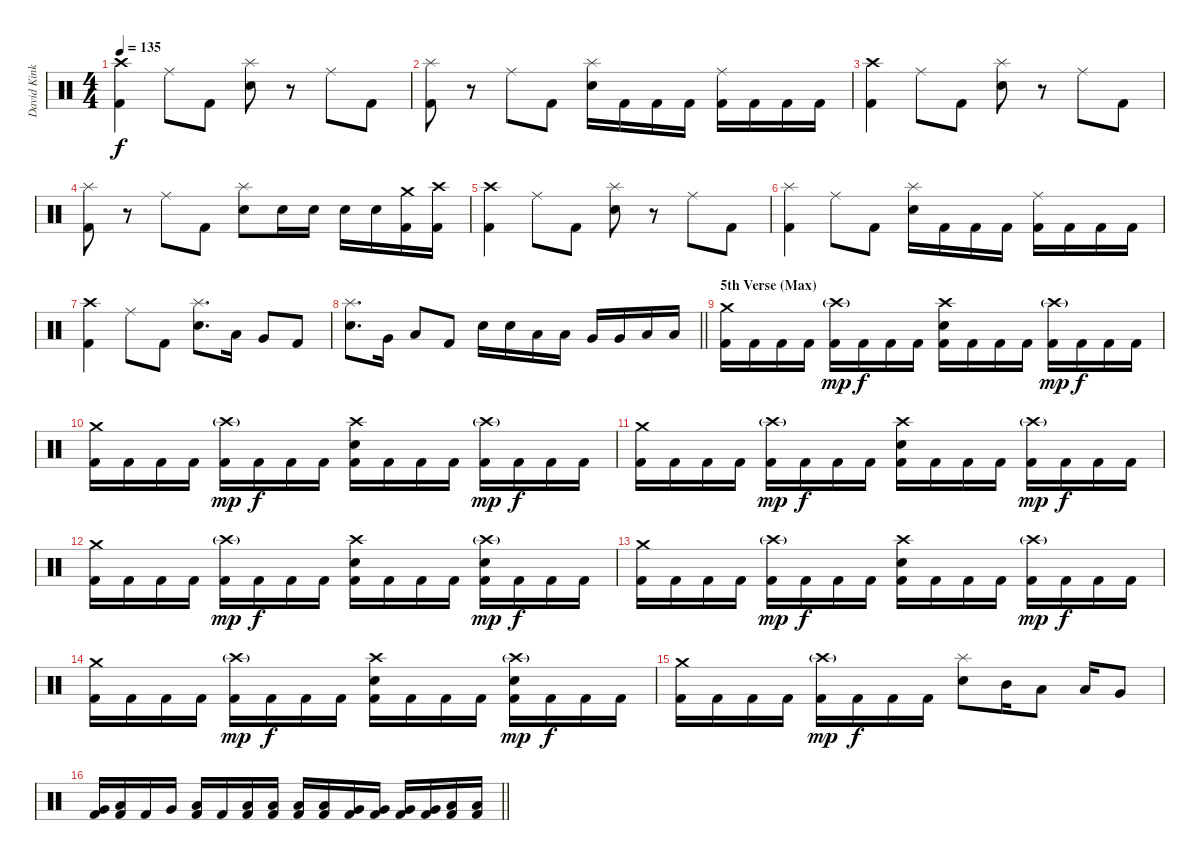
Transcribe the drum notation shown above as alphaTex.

\track ("David Kinkade" "David Kink") {instrument percussion}
\staff {score}
\articulation defaults
\ts (4 4)
\tempo 135
\clef neutral
\ks c
("Crash high (hit)" "Kick (hit) 2").4{dy f} "Ride (middle)".8 "Kick (hit) 2".8 ("Splash (hit)" "Snare (hit) 2").8 r.8 "Ride (middle)".8 "Kick (hit) 2".8 |
("Splash (hit)" "Kick (hit) 2").8 r.8 "Ride (middle)".8 "Kick (hit) 2".8 ("Splash (hit)" "Snare (hit) 2").16 "Kick (hit) 2".16 "Kick (hit) 2".16 "Kick (hit) 2".16 ("Ride (middle)" "Kick (hit) 2").16 "Kick (hit) 2".16 "Kick (hit) 2".16 "Kick (hit) 2".16 |
("Crash high (hit)" "Kick (hit) 2").4 "Ride (middle)".8 "Kick (hit) 2".8 ("Splash (hit)" "Snare (hit) 2").8 r.8 "Ride (middle)".8 "Kick (hit) 2".8 |
("Splash (hit)" "Kick (hit) 2").8 r.8 "Ride (middle)".8 "Kick (hit) 2".8 ("Splash (hit)" "Snare (hit) 2").8 "Snare (hit) 2".16 "Snare (hit) 2".16 "Snare (hit) 2".16 "Snare (hit) 2".16 ("Crash medium (hit)" "Kick (hit) 2").16 ("Crash high (hit)" "Kick (hit) 2").16 |
("Crash high (hit)" "Kick (hit) 2").4 "Ride (middle)".8 "Kick (hit) 2".8 ("Splash (hit)" "Snare (hit) 2").8 r.8 "Ride (middle)".8 "Kick (hit) 2".8 |
("Splash (hit)" "Kick (hit) 2").4 "Ride (middle)".8 "Kick (hit) 2".8 ("Splash (hit)" "Snare (hit) 2").16 "Kick (hit) 2".16 "Kick (hit) 2".16 "Kick (hit) 2".16 ("Ride (middle)" "Kick (hit) 2").16 "Kick (hit) 2".16 "Kick (hit) 2".16 "Kick (hit) 2".16 |
("Crash high (hit)" "Kick (hit) 2").4 "Ride (middle)".8 "Kick (hit) 2".8 ("Splash (hit)" "Snare (hit) 2").8{d} "Low Tom (hit)".16 "Very Low Tom (hit)".8 "Kick (hit) 2".8 |
\barLineRight lightlight
("Splash (hit)" "Snare (hit) 2").8{d} "Very Low Tom (hit)".16 "Low Floor Tom (hit)".8 "Kick (hit) 2".8 "Snare (hit) 2".16 "Snare (hit) 2".16 "Low Tom (hit)".16 "Low Tom (hit)".16 "Very Low Tom (hit)".16 "Very Low Tom (hit)".16 "Low Floor Tom (hit)".16 "Low Floor Tom (hit)".16 |
\section ("" "5th Verse (Max)")
("Crash medium (hit)" "Kick (hit) 2").16 "Kick (hit) 2".16 "Kick (hit) 2".16 "Kick (hit) 2".16 ("Crash high (hit)"{g} "Kick (hit) 2").16{dy mp} "Kick (hit) 2".16{dy f} "Kick (hit) 2".16 "Kick (hit) 2".16 ("Crash high (hit)" "Snare (hit) 2" "Kick (hit) 2").16 "Kick (hit) 2".16 "Kick (hit) 2".16 "Kick (hit) 2".16 ("Crash high (hit)"{g} "Kick (hit) 2").16{dy mp} "Kick (hit) 2".16{dy f} "Kick (hit) 2".16 "Kick (hit) 2".16 |
("Crash medium (hit)" "Kick (hit) 2").16 "Kick (hit) 2".16 "Kick (hit) 2".16 "Kick (hit) 2".16 ("Crash high (hit)"{g} "Kick (hit) 2").16{dy mp} "Kick (hit) 2".16{dy f} "Kick (hit) 2".16 "Kick (hit) 2".16 ("Crash high (hit)" "Snare (hit) 2" "Kick (hit) 2").16 "Kick (hit) 2".16 "Kick (hit) 2".16 "Kick (hit) 2".16 ("Crash high (hit)"{g} "Kick (hit) 2").16{dy mp} "Kick (hit) 2".16{dy f} "Kick (hit) 2".16 "Kick (hit) 2".16 |
("Crash medium (hit)" "Kick (hit) 2").16 "Kick (hit) 2".16 "Kick (hit) 2".16 "Kick (hit) 2".16 ("Crash high (hit)"{g} "Kick (hit) 2").16{dy mp} "Kick (hit) 2".16{dy f} "Kick (hit) 2".16 "Kick (hit) 2".16 ("Crash high (hit)" "Snare (hit) 2" "Kick (hit) 2").16 "Kick (hit) 2".16 "Kick (hit) 2".16 "Kick (hit) 2".16 ("Crash high (hit)"{g} "Kick (hit) 2").16{dy mp} "Kick (hit) 2".16{dy f} "Kick (hit) 2".16 "Kick (hit) 2".16 |
("Crash medium (hit)" "Kick (hit) 2").16 "Kick (hit) 2".16 "Kick (hit) 2".16 "Kick (hit) 2".16 ("Crash high (hit)"{g} "Kick (hit) 2").16{dy mp} "Kick (hit) 2".16{dy f} "Kick (hit) 2".16 "Kick (hit) 2".16 ("Crash high (hit)" "Snare (hit) 2" "Kick (hit) 2").16 "Kick (hit) 2".16 "Kick (hit) 2".16 "Kick (hit) 2".16 ("Crash high (hit)"{g} "Snare (hit) 2" "Kick (hit) 2").16{dy mp} "Kick (hit) 2".16{dy f} "Kick (hit) 2".16 "Kick (hit) 2".16 |
("Crash medium (hit)" "Kick (hit) 2").16 "Kick (hit) 2".16 "Kick (hit) 2".16 "Kick (hit) 2".16 ("Crash high (hit)"{g} "Kick (hit) 2").16{dy mp} "Kick (hit) 2".16{dy f} "Kick (hit) 2".16 "Kick (hit) 2".16 ("Crash high (hit)" "Snare (hit) 2" "Kick (hit) 2").16 "Kick (hit) 2".16 "Kick (hit) 2".16 "Kick (hit) 2".16 ("Crash high (hit)"{g} "Kick (hit) 2").16{dy mp} "Kick (hit) 2".16{dy f} "Kick (hit) 2".16 "Kick (hit) 2".16 |
("Crash medium (hit)" "Kick (hit) 2").16 "Kick (hit) 2".16 "Kick (hit) 2".16 "Kick (hit) 2".16 ("Crash high (hit)"{g} "Kick (hit) 2").16{dy mp} "Kick (hit) 2".16{dy f} "Kick (hit) 2".16 "Kick (hit) 2".16 ("Crash high (hit)" "Snare (hit) 2" "Kick (hit) 2").16 "Kick (hit) 2".16 "Kick (hit) 2".16 "Kick (hit) 2".16 ("Crash high (hit)"{g} "Snare (hit) 2" "Kick (hit) 2").16{dy mp} "Kick (hit) 2".16{dy f} "Kick (hit) 2".16 "Kick (hit) 2".16 |
("Crash medium (hit)" "Kick (hit) 2").16 "Kick (hit) 2".16 "Kick (hit) 2".16 "Kick (hit) 2".16 ("Crash high (hit)"{g} "Kick (hit) 2").16{dy mp} "Kick (hit) 2".16{dy f} "Kick (hit) 2".16 "Kick (hit) 2".16 ("Splash (hit)" "Snare (hit) 2").8 "Mid Tom (hit)".16 "Low Tom (hit)".8 "Low Tom (hit)".16 "Very Low Tom (hit)".8 |
\barLineRight lightlight
("Very Low Tom (hit)" "Kick (hit) 2").16 ("Low Floor Tom (hit)" "Kick (hit) 2").16 "Kick (hit) 2".16 "Very Low Tom (hit)".16 ("Low Floor Tom (hit)" "Kick (hit) 2").16 "Kick (hit) 2".16 ("Low Tom (hit)" "Kick (hit) 2").16 ("Low Tom (hit)" "Kick (hit) 2").16 ("Low Tom (hit)" "Kick (hit) 2").16 ("Low Tom (hit)" "Kick (hit) 2").16 ("Very Low Tom (hit)" "Kick (hit) 2").16 ("Very Low Tom (hit)" "Kick (hit) 2").16 ("Very Low Tom (hit)" "Kick (hit) 2").16 ("Very Low Tom (hit)" "Kick (hit) 2").16 ("Low Floor Tom (hit)" "Kick (hit) 2").16 ("Low Floor Tom (hit)" "Kick (hit) 2").16
